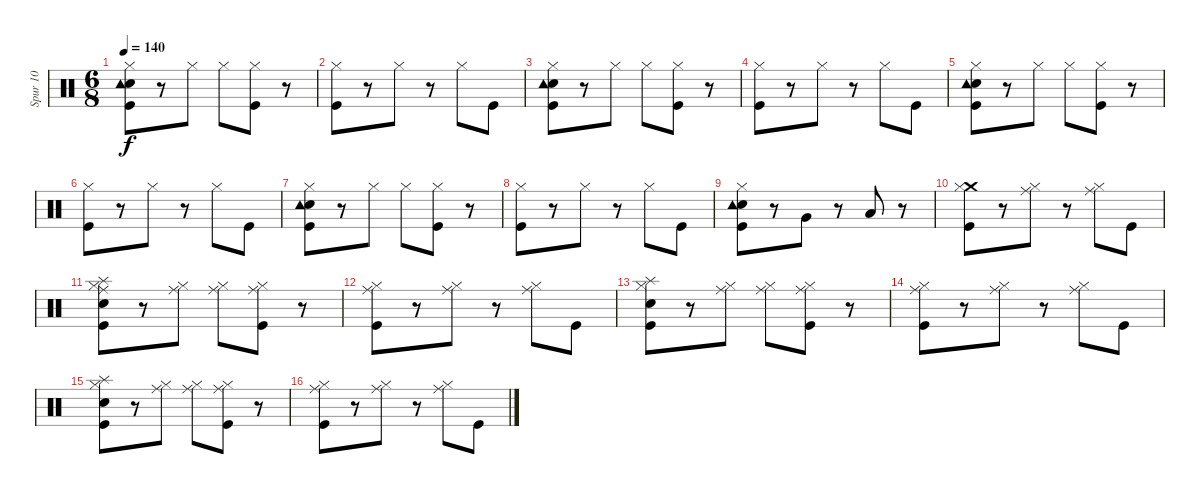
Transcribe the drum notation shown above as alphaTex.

\track ("Spur 10" "Spur 10") {instrument percussion}
\staff {score}
\articulation defaults
\ts (6 8)
\tempo 140
\clef neutral
\ks c
("Kick (hit)" "Snare (hit) 2" "Tambourine (hit)" "Hi-Hat (closed)").8{dy f} r.8 "Hi-Hat (closed)".8 "Hi-Hat (closed)".8 ("Kick (hit)" "Hi-Hat (closed)").8 r.8 |
("Kick (hit)" "Hi-Hat (closed)").8 r.8 "Hi-Hat (closed)".8 r.8 "Hi-Hat (closed)".8 "Kick (hit)".8 |
("Kick (hit)" "Snare (hit) 2" "Tambourine (hit)" "Hi-Hat (closed)").8 r.8 "Hi-Hat (closed)".8 "Hi-Hat (closed)".8 ("Kick (hit)" "Hi-Hat (closed)").8 r.8 |
("Kick (hit)" "Hi-Hat (closed)").8 r.8 "Hi-Hat (closed)".8 r.8 "Hi-Hat (closed)".8 "Kick (hit)".8 |
("Kick (hit)" "Snare (hit) 2" "Tambourine (hit)" "Hi-Hat (closed)").8 r.8 "Hi-Hat (closed)".8 "Hi-Hat (closed)".8 ("Kick (hit)" "Hi-Hat (closed)").8 r.8 |
("Kick (hit)" "Hi-Hat (closed)").8 r.8 "Hi-Hat (closed)".8 r.8 "Hi-Hat (closed)".8 "Kick (hit)".8 |
("Kick (hit)" "Snare (hit) 2" "Tambourine (hit)" "Hi-Hat (closed)").8 r.8 "Hi-Hat (closed)".8 "Hi-Hat (closed)".8 ("Kick (hit)" "Hi-Hat (closed)").8 r.8 |
("Kick (hit)" "Hi-Hat (closed)").8 r.8 "Hi-Hat (closed)".8 r.8 "Hi-Hat (closed)".8 "Kick (hit)".8 |
("Kick (hit)" "Snare (hit) 2" "Tambourine (hit)" "Hi-Hat (closed)").8 r.8 "Very Low Tom (hit)".8 r.8 "Low Floor Tom (hit)".8 r.8 |
("Crash medium (hit)" "Kick (hit)" "Hi-Hat (closed)").8 r.8 ("Ride (middle)" "Hi-Hat (closed)").8 r.8 ("Ride (middle)" "Hi-Hat (closed)").8 "Kick (hit)".8 |
("Ride (middle)" "Kick (hit)" "Snare (hit) 2" "Splash (hit)" "Hi-Hat (closed)").8 r.8 ("Ride (middle)" "Hi-Hat (closed)").8 ("Ride (middle)" "Hi-Hat (closed)").8 ("Ride (middle)" "Kick (hit)" "Hi-Hat (closed)").8 r.8 |
("Ride (middle)" "Kick (hit)" "Hi-Hat (closed)").8 r.8 ("Ride (middle)" "Hi-Hat (closed)").8 r.8 ("Ride (middle)" "Hi-Hat (closed)").8 "Kick (hit)".8 |
("Kick (hit)" "Snare (hit) 2" "Splash (hit)" "Hi-Hat (closed)").8 r.8 ("Ride (middle)" "Hi-Hat (closed)").8 ("Ride (middle)" "Hi-Hat (closed)").8 ("Ride (middle)" "Kick (hit)" "Hi-Hat (closed)").8 r.8 |
("Ride (middle)" "Kick (hit)" "Hi-Hat (closed)").8 r.8 ("Ride (middle)" "Hi-Hat (closed)").8 r.8 ("Ride (middle)" "Hi-Hat (closed)").8 "Kick (hit)".8 |
("Kick (hit)" "Snare (hit) 2" "Splash (hit)" "Hi-Hat (closed)").8 r.8 ("Ride (middle)" "Hi-Hat (closed)").8 ("Ride (middle)" "Hi-Hat (closed)").8 ("Ride (middle)" "Kick (hit)" "Hi-Hat (closed)").8 r.8 |
("Ride (middle)" "Kick (hit)" "Hi-Hat (closed)").8 r.8 ("Ride (middle)" "Hi-Hat (closed)").8 r.8 ("Ride (middle)" "Hi-Hat (closed)").8 "Kick (hit)".8
